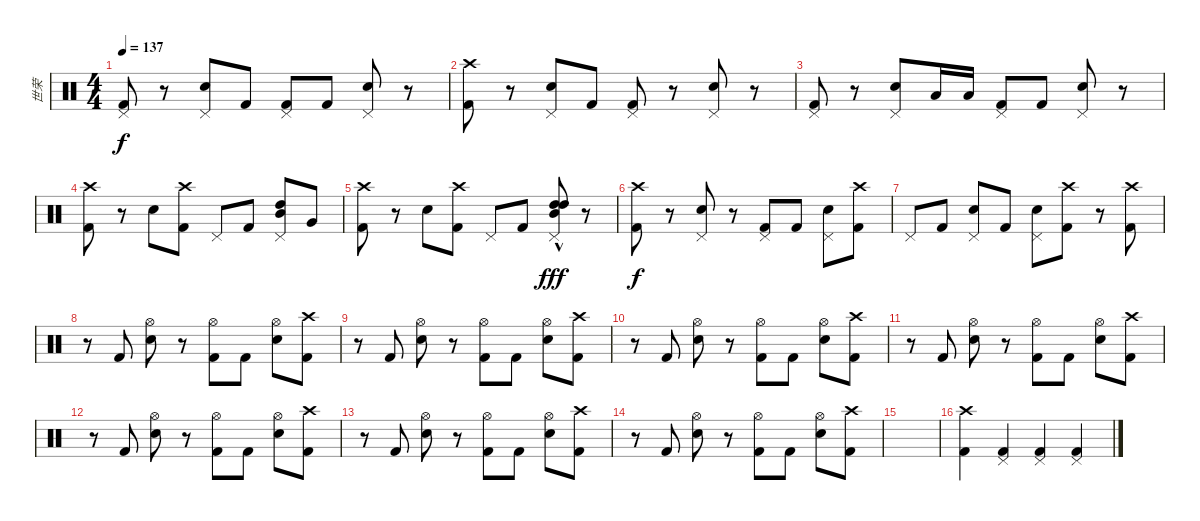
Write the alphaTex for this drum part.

\track ("世荣" "世荣") {instrument percussion}
\staff {score}
\articulation defaults
\ts (4 4)
\tempo 137
\clef neutral
\ks c
("Pedal Hi-Hat (hit)" "Kick (hit) 2").8{dy f} r.8 ("Pedal Hi-Hat (hit)" "Electric Snare (hit)").8 "Kick (hit) 2".8 ("Pedal Hi-Hat (hit)" "Kick (hit) 2").8 "Kick (hit) 2".8 ("Pedal Hi-Hat (hit)" "Electric Snare (hit)").8 r.8 |
("Crash high (hit)" "Kick (hit) 2").8 r.8 ("Pedal Hi-Hat (hit)" "Electric Snare (hit)").8 "Kick (hit) 2".8 ("Pedal Hi-Hat (hit)" "Kick (hit) 2").8 r.8 ("Pedal Hi-Hat (hit)" "Electric Snare (hit)").8 r.8 |
("Pedal Hi-Hat (hit)" "Kick (hit) 2").8 r.8 ("Pedal Hi-Hat (hit)" "Electric Snare (hit)").8 "Low Tom (hit)".16 "Low Tom (hit)".16 ("Pedal Hi-Hat (hit)" "Kick (hit) 2").8 "Kick (hit) 2".8 ("Pedal Hi-Hat (hit)" "Electric Snare (hit)").8 r.8 |
("Crash high (hit)" "Kick (hit) 2").8 r.8 "Electric Snare (hit)".8 ("Crash high (hit)" "Kick (hit) 2").8 "Pedal Hi-Hat (hit)".8 "Kick (hit) 2".8 ("Pedal Hi-Hat (hit)" "Mid Tom (hit)" "High Tom (hit)").8 "Very Low Tom (hit)".8 |
("Crash high (hit)" "Kick (hit) 2").8 r.8 "Electric Snare (hit)".8 ("Crash high (hit)" "Kick (hit) 2").8 "Pedal Hi-Hat (hit)".8 "Kick (hit) 2".8 ("Pedal Hi-Hat (hit)" "High Tom (hit)"{hac} "High Tom (hit)"{hac} "Mid Tom (hit)"{hac}).8{dy fff} r.8 |
("Crash high (hit)" "Kick (hit) 2").8{dy f} r.8 ("Pedal Hi-Hat (hit)" "Electric Snare (hit)").8 r.8 ("Pedal Hi-Hat (hit)" "Kick (hit) 2").8 "Kick (hit) 2".8 ("Pedal Hi-Hat (hit)" "Electric Snare (hit)").8 ("Crash high (hit)" "Kick (hit) 2").8 |
"Pedal Hi-Hat (hit)".8 "Kick (hit) 2".8 ("Pedal Hi-Hat (hit)" "Electric Snare (hit)").8 "Kick (hit) 2".8 ("Pedal Hi-Hat (hit)" "Electric Snare (hit)").8 ("Crash high (hit)" "Kick (hit) 2").8 r.8 ("Crash high (hit)" "Kick (hit) 2").8 |
r.8 "Kick (hit) 2".8 ("Hi-Hat (open)" "Electric Snare (hit)").8 r.8 ("Hi-Hat (open)" "Kick (hit) 2").8 "Kick (hit) 2".8 ("Hi-Hat (open)" "Electric Snare (hit)").8 ("Crash high (hit)" "Kick (hit) 2").8 |
r.8 "Kick (hit) 2".8 ("Hi-Hat (open)" "Electric Snare (hit)").8 r.8 ("Hi-Hat (open)" "Kick (hit) 2").8 "Kick (hit) 2".8 ("Hi-Hat (open)" "Electric Snare (hit)").8 ("Crash high (hit)" "Kick (hit) 2").8 |
r.8 "Kick (hit) 2".8 ("Hi-Hat (open)" "Electric Snare (hit)").8 r.8 ("Hi-Hat (open)" "Kick (hit) 2").8 "Kick (hit) 2".8 ("Hi-Hat (open)" "Electric Snare (hit)").8 ("Crash high (hit)" "Kick (hit) 2").8 |
r.8 "Kick (hit) 2".8 ("Hi-Hat (open)" "Electric Snare (hit)").8 r.8 ("Hi-Hat (open)" "Kick (hit) 2").8 "Kick (hit) 2".8 ("Hi-Hat (open)" "Electric Snare (hit)").8 ("Crash high (hit)" "Kick (hit) 2").8 |
r.8 "Kick (hit) 2".8 ("Hi-Hat (open)" "Electric Snare (hit)").8 r.8 ("Hi-Hat (open)" "Kick (hit) 2").8 "Kick (hit) 2".8 ("Hi-Hat (open)" "Electric Snare (hit)").8 ("Crash high (hit)" "Kick (hit) 2").8 |
r.8 "Kick (hit) 2".8 ("Hi-Hat (open)" "Electric Snare (hit)").8 r.8 ("Hi-Hat (open)" "Kick (hit) 2").8 "Kick (hit) 2".8 ("Hi-Hat (open)" "Electric Snare (hit)").8 ("Crash high (hit)" "Kick (hit) 2").8 |
r.8 "Kick (hit) 2".8 ("Hi-Hat (open)" "Electric Snare (hit)").8 r.8 ("Hi-Hat (open)" "Kick (hit) 2").8 "Kick (hit) 2".8 ("Hi-Hat (open)" "Electric Snare (hit)").8 ("Crash high (hit)" "Kick (hit) 2").8 |
|
("Crash high (hit)" "Kick (hit) 2").4 ("Pedal Hi-Hat (hit)" "Kick (hit) 2").4 ("Pedal Hi-Hat (hit)" "Kick (hit) 2").4 ("Pedal Hi-Hat (hit)" "Kick (hit) 2").4
